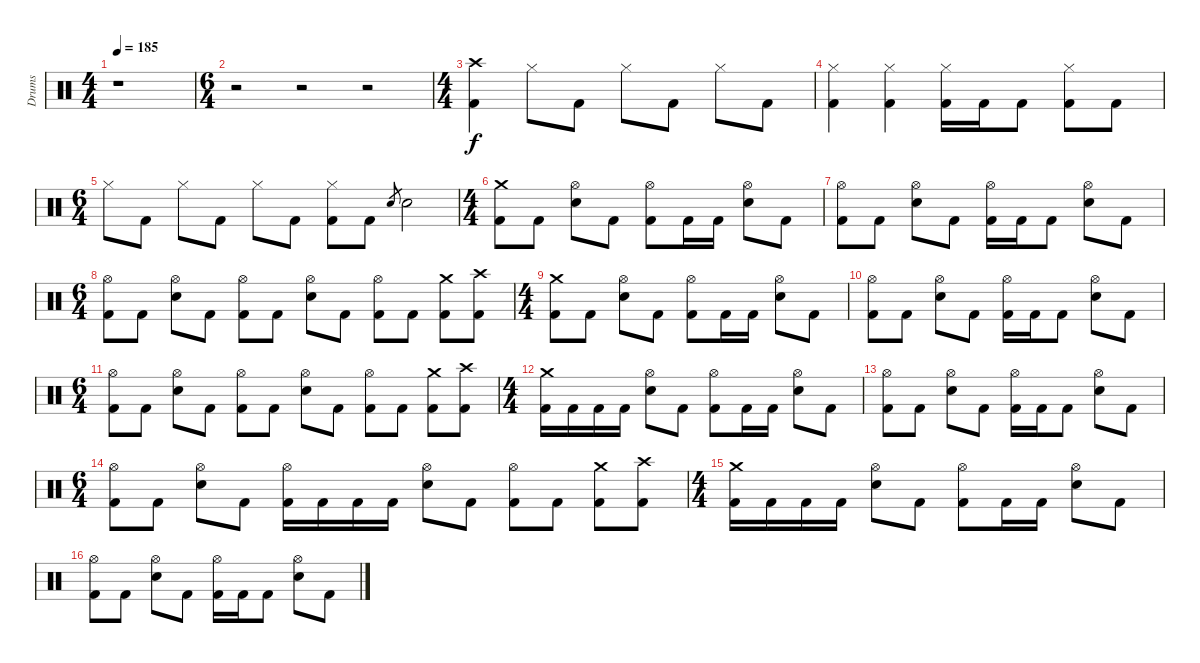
\track ("Drums" "Drums") {instrument percussion}
\staff {score}
\articulation defaults
\ts (4 4)
\tempo 185
\clef neutral
\ks c
r.1{dy f} |
\ts (6 4)
r.2 r.2 r.2 |
\ts (4 4)
("Crash high (hit)" "Kick (hit) 2").4 "Hi-Hat (closed)".8 "Kick (hit) 2".8 "Hi-Hat (closed)".8 "Kick (hit) 2".8 "Hi-Hat (closed)".8 "Kick (hit) 2".8 |
("Hi-Hat (closed)" "Kick (hit) 2").4 ("Hi-Hat (closed)" "Kick (hit) 2").4 ("Hi-Hat (closed)" "Kick (hit) 2").16 "Kick (hit) 2".16 "Kick (hit) 2".8 ("Hi-Hat (closed)" "Kick (hit) 2").8 "Kick (hit) 2".8 |
\ts (6 4)
"Hi-Hat (closed)".8 "Kick (hit) 2".8 "Hi-Hat (closed)".8 "Kick (hit) 2".8 "Hi-Hat (closed)".8 "Kick (hit) 2".8 ("Hi-Hat (closed)" "Kick (hit) 2").8 "Kick (hit) 2".8 "Electric Snare (hit)".8{gr} "Electric Snare (hit)".2 |
\ts (4 4)
("Crash medium (hit)" "Kick (hit) 2").8 "Kick (hit) 2".8 ("Hi-Hat (open)" "Electric Snare (hit)").8 "Kick (hit) 2".8 ("Hi-Hat (open)" "Kick (hit) 2").8 "Kick (hit) 2".16 "Kick (hit) 2".16 ("Hi-Hat (open)" "Electric Snare (hit)").8 "Kick (hit) 2".8 |
("Hi-Hat (open)" "Kick (hit) 2").8 "Kick (hit) 2".8 ("Hi-Hat (open)" "Electric Snare (hit)").8 "Kick (hit) 2".8 ("Hi-Hat (open)" "Kick (hit) 2").16 "Kick (hit) 2".16 "Kick (hit) 2".8 ("Hi-Hat (open)" "Electric Snare (hit)").8 "Kick (hit) 2".8 |
\ts (6 4)
("Hi-Hat (open)" "Kick (hit) 2").8 "Kick (hit) 2".8 ("Electric Snare (hit)" "Hi-Hat (open)").8 "Kick (hit) 2".8 ("Hi-Hat (open)" "Kick (hit) 2").8 "Kick (hit) 2".8 ("Electric Snare (hit)" "Hi-Hat (open)").8 "Kick (hit) 2".8 ("Hi-Hat (open)" "Kick (hit) 2").8 "Kick (hit) 2".8 ("Crash medium (hit)" "Kick (hit) 2").8 ("Crash high (hit)" "Kick (hit) 2").8 |
\ts (4 4)
("Crash medium (hit)" "Kick (hit) 2").8 "Kick (hit) 2".8 ("Hi-Hat (open)" "Electric Snare (hit)").8 "Kick (hit) 2".8 ("Hi-Hat (open)" "Kick (hit) 2").8 "Kick (hit) 2".16 "Kick (hit) 2".16 ("Hi-Hat (open)" "Electric Snare (hit)").8 "Kick (hit) 2".8 |
("Hi-Hat (open)" "Kick (hit) 2").8 "Kick (hit) 2".8 ("Hi-Hat (open)" "Electric Snare (hit)").8 "Kick (hit) 2".8 ("Hi-Hat (open)" "Kick (hit) 2").16 "Kick (hit) 2".16 "Kick (hit) 2".8 ("Hi-Hat (open)" "Electric Snare (hit)").8 "Kick (hit) 2".8 |
\ts (6 4)
("Hi-Hat (open)" "Kick (hit) 2").8 "Kick (hit) 2".8 ("Electric Snare (hit)" "Hi-Hat (open)").8 "Kick (hit) 2".8 ("Hi-Hat (open)" "Kick (hit) 2").8 "Kick (hit) 2".8 ("Electric Snare (hit)" "Hi-Hat (open)").8 "Kick (hit) 2".8 ("Hi-Hat (open)" "Kick (hit) 2").8 "Kick (hit) 2".8 ("Crash medium (hit)" "Kick (hit) 2").8 ("Crash high (hit)" "Kick (hit) 2").8 |
\ts (4 4)
("Crash medium (hit)" "Kick (hit) 2").16 "Kick (hit) 2".16 "Kick (hit) 2".16 "Kick (hit) 2".16 ("Hi-Hat (open)" "Electric Snare (hit)").8 "Kick (hit) 2".8 ("Hi-Hat (open)" "Kick (hit) 2").8 "Kick (hit) 2".16 "Kick (hit) 2".16 ("Hi-Hat (open)" "Electric Snare (hit)").8 "Kick (hit) 2".8 |
("Hi-Hat (open)" "Kick (hit) 2").8 "Kick (hit) 2".8 ("Hi-Hat (open)" "Electric Snare (hit)").8 "Kick (hit) 2".8 ("Hi-Hat (open)" "Kick (hit) 2").16 "Kick (hit) 2".16 "Kick (hit) 2".8 ("Hi-Hat (open)" "Electric Snare (hit)").8 "Kick (hit) 2".8 |
\ts (6 4)
("Hi-Hat (open)" "Kick (hit) 2").8 "Kick (hit) 2".8 ("Electric Snare (hit)" "Hi-Hat (open)").8 "Kick (hit) 2".8 ("Hi-Hat (open)" "Kick (hit) 2").16 "Kick (hit) 2".16 "Kick (hit) 2".16 "Kick (hit) 2".16 ("Electric Snare (hit)" "Hi-Hat (open)").8 "Kick (hit) 2".8 ("Hi-Hat (open)" "Kick (hit) 2").8 "Kick (hit) 2".8 ("Crash medium (hit)" "Kick (hit) 2").8 ("Crash high (hit)" "Kick (hit) 2").8 |
\ts (4 4)
("Crash medium (hit)" "Kick (hit) 2").16 "Kick (hit) 2".16 "Kick (hit) 2".16 "Kick (hit) 2".16 ("Hi-Hat (open)" "Electric Snare (hit)").8 "Kick (hit) 2".8 ("Hi-Hat (open)" "Kick (hit) 2").8 "Kick (hit) 2".16 "Kick (hit) 2".16 ("Hi-Hat (open)" "Electric Snare (hit)").8 "Kick (hit) 2".8 |
("Hi-Hat (open)" "Kick (hit) 2").8 "Kick (hit) 2".8 ("Hi-Hat (open)" "Electric Snare (hit)").8 "Kick (hit) 2".8 ("Hi-Hat (open)" "Kick (hit) 2").16 "Kick (hit) 2".16 "Kick (hit) 2".8 ("Hi-Hat (open)" "Electric Snare (hit)").8 "Kick (hit) 2".8
